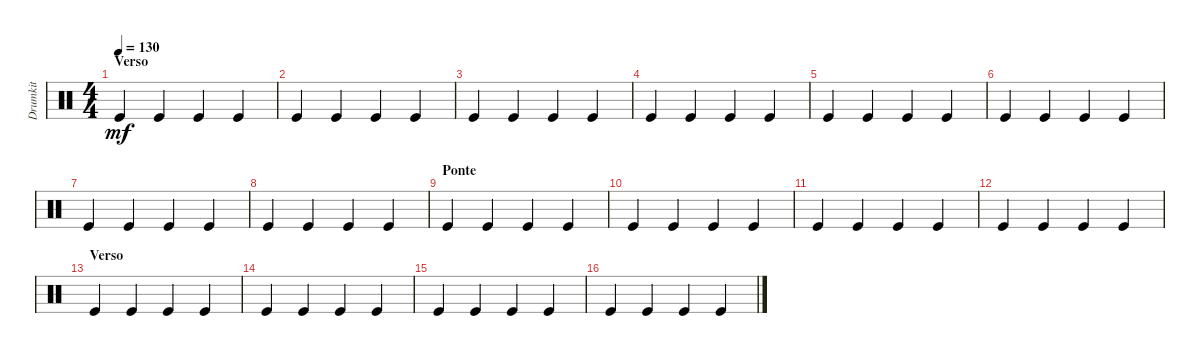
\track ("Drumkit" "Drumkit") {instrument percussion}
\staff {score}
\articulation defaults
\ts (4 4)
\section ("" "Verso")
\tempo 130
\clef neutral
\ks c "Kick (hit)".4{dy mf} "Kick (hit)".4 "Kick (hit)".4 "Kick (hit)".4
|
"Kick (hit)".4 "Kick (hit)".4 "Kick (hit)".4 "Kick (hit)".4 |
"Kick (hit)".4 "Kick (hit)".4 "Kick (hit)".4 "Kick (hit)".4 |
"Kick (hit)".4 "Kick (hit)".4 "Kick (hit)".4 "Kick (hit)".4 |
"Kick (hit)".4 "Kick (hit)".4 "Kick (hit)".4 "Kick (hit)".4 |
"Kick (hit)".4 "Kick (hit)".4 "Kick (hit)".4 "Kick (hit)".4 |
"Kick (hit)".4 "Kick (hit)".4 "Kick (hit)".4 "Kick (hit)".4 |
"Kick (hit)".4 "Kick (hit)".4 "Kick (hit)".4 "Kick (hit)".4 |
\section ("" "Ponte")
"Kick (hit)".4 "Kick (hit)".4 "Kick (hit)".4 "Kick (hit)".4 |
"Kick (hit)".4 "Kick (hit)".4 "Kick (hit)".4 "Kick (hit)".4 |
"Kick (hit)".4 "Kick (hit)".4 "Kick (hit)".4 "Kick (hit)".4 |
"Kick (hit)".4 "Kick (hit)".4 "Kick (hit)".4 "Kick (hit)".4 |
\section ("" "Verso")
"Kick (hit)".4 "Kick (hit)".4 "Kick (hit)".4 "Kick (hit)".4 |
"Kick (hit)".4 "Kick (hit)".4 "Kick (hit)".4 "Kick (hit)".4 |
"Kick (hit)".4 "Kick (hit)".4 "Kick (hit)".4 "Kick (hit)".4 |
"Kick (hit)".4 "Kick (hit)".4 "Kick (hit)".4 "Kick (hit)".4
